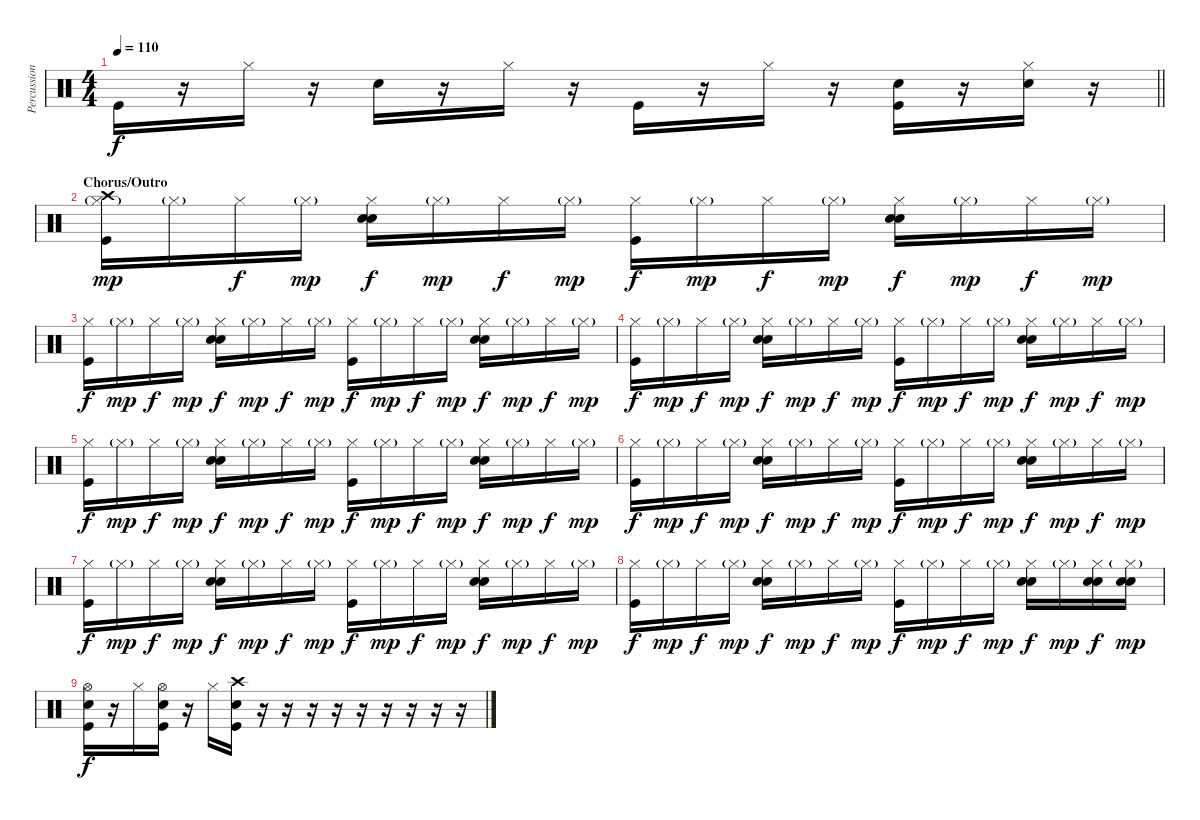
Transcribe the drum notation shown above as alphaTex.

\track ("Percussion" "Percussion") {instrument percussion}
\staff {score}
\articulation defaults
\ts (4 4)
\tempo 110
\clef neutral
\barLineRight lightlight
\ks c "Kick (hit)".16{dy f}
r.16 "Hi-Hat (closed)".16 r.16 "Snare (hit) 2".16 r.16 "Hi-Hat (closed)".16 r.16 "Kick (hit)".16 r.16 "Hi-Hat (closed)".16 r.16 ("Hand Clap (hit)" "Kick (hit)").16 r.16 ("Hi-Hat (closed)" "Hand Clap (hit)").16 r.16 |
\section ("" "Chorus/Outro")
("Crash high (hit)" "Hi-Hat (closed)"{g} "Kick (hit)").16{dy mp} "Hi-Hat (closed)"{g}.16 "Hi-Hat (closed)".16{dy f} "Hi-Hat (closed)"{g}.16{dy mp} ("Hi-Hat (closed)" "Hand Clap (hit)" "Snare (hit) 2").16{dy f} "Hi-Hat (closed)"{g}.16{dy mp} "Hi-Hat (closed)".16{dy f} "Hi-Hat (closed)"{g}.16{dy mp} ("Hi-Hat (closed)" "Kick (hit)").16{dy f} "Hi-Hat (closed)"{g}.16{dy mp} "Hi-Hat (closed)".16{dy f} "Hi-Hat (closed)"{g}.16{dy mp} ("Hi-Hat (closed)" "Hand Clap (hit)" "Snare (hit) 2").16{dy f} "Hi-Hat (closed)"{g}.16{dy mp} "Hi-Hat (closed)".16{dy f} "Hi-Hat (closed)"{g}.16{dy mp} |
("Hi-Hat (closed)" "Kick (hit)").16{dy f} "Hi-Hat (closed)"{g}.16{dy mp} "Hi-Hat (closed)".16{dy f} "Hi-Hat (closed)"{g}.16{dy mp} ("Hi-Hat (closed)" "Hand Clap (hit)" "Snare (hit) 2").16{dy f} "Hi-Hat (closed)"{g}.16{dy mp} "Hi-Hat (closed)".16{dy f} "Hi-Hat (closed)"{g}.16{dy mp} ("Hi-Hat (closed)" "Kick (hit)").16{dy f} "Hi-Hat (closed)"{g}.16{dy mp} "Hi-Hat (closed)".16{dy f} "Hi-Hat (closed)"{g}.16{dy mp} ("Hi-Hat (closed)" "Hand Clap (hit)" "Snare (hit) 2").16{dy f} "Hi-Hat (closed)"{g}.16{dy mp} "Hi-Hat (closed)".16{dy f} "Hi-Hat (closed)"{g}.16{dy mp} |
("Hi-Hat (closed)" "Kick (hit)").16{dy f} "Hi-Hat (closed)"{g}.16{dy mp} "Hi-Hat (closed)".16{dy f} "Hi-Hat (closed)"{g}.16{dy mp} ("Hi-Hat (closed)" "Hand Clap (hit)" "Snare (hit) 2").16{dy f} "Hi-Hat (closed)"{g}.16{dy mp} "Hi-Hat (closed)".16{dy f} "Hi-Hat (closed)"{g}.16{dy mp} ("Hi-Hat (closed)" "Kick (hit)").16{dy f} "Hi-Hat (closed)"{g}.16{dy mp} "Hi-Hat (closed)".16{dy f} "Hi-Hat (closed)"{g}.16{dy mp} ("Hi-Hat (closed)" "Hand Clap (hit)" "Snare (hit) 2").16{dy f} "Hi-Hat (closed)"{g}.16{dy mp} "Hi-Hat (closed)".16{dy f} "Hi-Hat (closed)"{g}.16{dy mp} |
("Hi-Hat (closed)" "Kick (hit)").16{dy f} "Hi-Hat (closed)"{g}.16{dy mp} "Hi-Hat (closed)".16{dy f} "Hi-Hat (closed)"{g}.16{dy mp} ("Hi-Hat (closed)" "Hand Clap (hit)" "Snare (hit) 2").16{dy f} "Hi-Hat (closed)"{g}.16{dy mp} "Hi-Hat (closed)".16{dy f} "Hi-Hat (closed)"{g}.16{dy mp} ("Hi-Hat (closed)" "Kick (hit)").16{dy f} "Hi-Hat (closed)"{g}.16{dy mp} "Hi-Hat (closed)".16{dy f} "Hi-Hat (closed)"{g}.16{dy mp} ("Hi-Hat (closed)" "Hand Clap (hit)" "Snare (hit) 2").16{dy f} "Hi-Hat (closed)"{g}.16{dy mp} "Hi-Hat (closed)".16{dy f} "Hi-Hat (closed)"{g}.16{dy mp} |
("Hi-Hat (closed)" "Kick (hit)").16{dy f} "Hi-Hat (closed)"{g}.16{dy mp} "Hi-Hat (closed)".16{dy f} "Hi-Hat (closed)"{g}.16{dy mp} ("Hi-Hat (closed)" "Hand Clap (hit)" "Snare (hit) 2").16{dy f} "Hi-Hat (closed)"{g}.16{dy mp} "Hi-Hat (closed)".16{dy f} "Hi-Hat (closed)"{g}.16{dy mp} ("Hi-Hat (closed)" "Kick (hit)").16{dy f} "Hi-Hat (closed)"{g}.16{dy mp} "Hi-Hat (closed)".16{dy f} "Hi-Hat (closed)"{g}.16{dy mp} ("Hi-Hat (closed)" "Hand Clap (hit)" "Snare (hit) 2").16{dy f} "Hi-Hat (closed)"{g}.16{dy mp} "Hi-Hat (closed)".16{dy f} "Hi-Hat (closed)"{g}.16{dy mp} |
("Hi-Hat (closed)" "Kick (hit)").16{dy f} "Hi-Hat (closed)"{g}.16{dy mp} "Hi-Hat (closed)".16{dy f} "Hi-Hat (closed)"{g}.16{dy mp} ("Hi-Hat (closed)" "Hand Clap (hit)" "Snare (hit) 2").16{dy f} "Hi-Hat (closed)"{g}.16{dy mp} "Hi-Hat (closed)".16{dy f} "Hi-Hat (closed)"{g}.16{dy mp} ("Hi-Hat (closed)" "Kick (hit)").16{dy f} "Hi-Hat (closed)"{g}.16{dy mp} "Hi-Hat (closed)".16{dy f} "Hi-Hat (closed)"{g}.16{dy mp} ("Hi-Hat (closed)" "Hand Clap (hit)" "Snare (hit) 2").16{dy f} "Hi-Hat (closed)"{g}.16{dy mp} "Hi-Hat (closed)".16{dy f} "Hi-Hat (closed)"{g}.16{dy mp} |
("Hi-Hat (closed)" "Kick (hit)").16{dy f} "Hi-Hat (closed)"{g}.16{dy mp} "Hi-Hat (closed)".16{dy f} "Hi-Hat (closed)"{g}.16{dy mp} ("Hi-Hat (closed)" "Hand Clap (hit)" "Snare (hit) 2").16{dy f} "Hi-Hat (closed)"{g}.16{dy mp} "Hi-Hat (closed)".16{dy f} "Hi-Hat (closed)"{g}.16{dy mp} ("Hi-Hat (closed)" "Kick (hit)").16{dy f} "Hi-Hat (closed)"{g}.16{dy mp} "Hi-Hat (closed)".16{dy f} "Hi-Hat (closed)"{g}.16{dy mp} ("Hi-Hat (closed)" "Hand Clap (hit)" "Snare (hit) 2").16{dy f} "Hi-Hat (closed)"{g}.16{dy mp} ("Hi-Hat (closed)" "Hand Clap (hit)" "Snare (hit) 2").16{dy f} ("Hi-Hat (closed)"{g} "Hand Clap (hit)" "Snare (hit) 2").16{dy mp} |
("Hi-Hat (open)" "Hand Clap (hit)" "Kick (hit)").16{dy f} r.16 "Hi-Hat (closed)".16 ("Hi-Hat (open)" "Hand Clap (hit)" "Kick (hit)").16 r.16 "Hi-Hat (closed)".16 ("Crash high (hit)" "Hand Clap (hit)" "Kick (hit)").16 r.16 r.16 r.16 r.16 r.16 r.16 r.16 r.16 r.16
